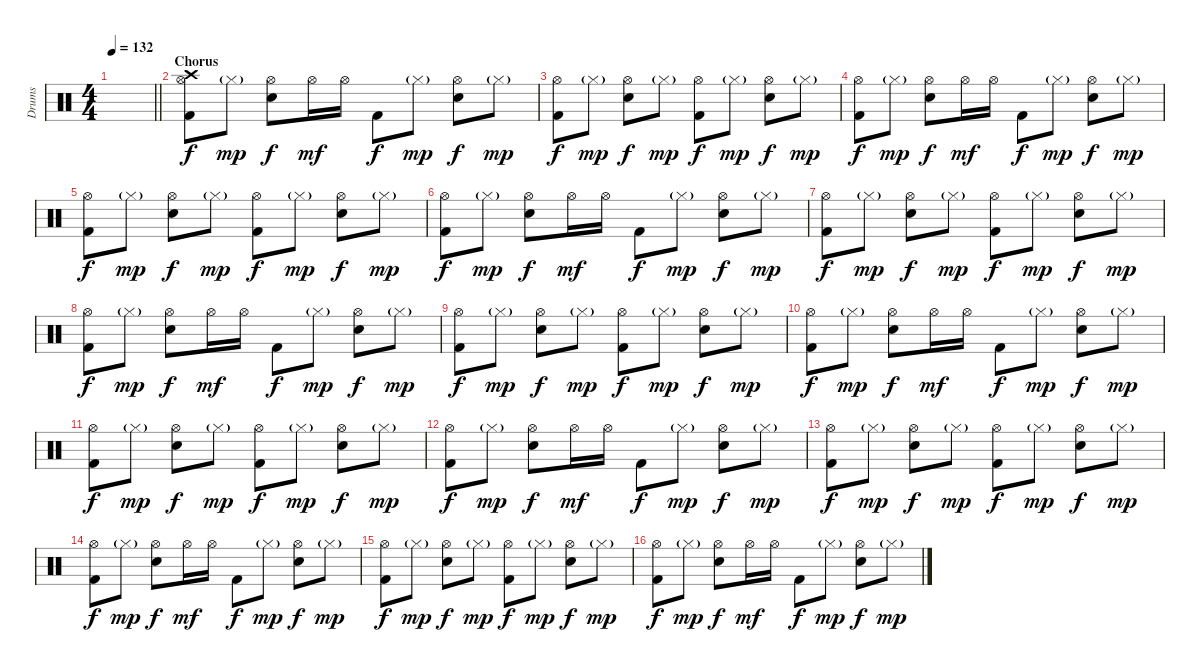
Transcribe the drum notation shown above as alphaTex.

\track ("Drums" "Drums") {instrument percussion}
\staff {score}
\articulation defaults
\ts (4 4)
\tempo 132
\clef neutral
\barLineRight lightlight
\ks c
|
\section ("" "Chorus ")
("Hi-Hat (open)" "Crash high (hit)" "Kick (hit) 2").8 "Hi-Hat (closed)"{g}.8{dy mp} ("Hi-Hat (open)" "Snare (hit) 2").8{dy f} "Hi-Hat (open)".16{dy mf} "Hi-Hat (open)".16 "Kick (hit) 2".8{dy f} "Hi-Hat (closed)"{g}.8{dy mp} ("Hi-Hat (open)" "Snare (hit) 2").8{dy f} "Hi-Hat (closed)"{g}.8{dy mp} |
("Hi-Hat (open)" "Kick (hit) 2").8{dy f} "Hi-Hat (closed)"{g}.8{dy mp} ("Hi-Hat (open)" "Snare (hit) 2").8{dy f} "Hi-Hat (closed)"{g}.8{dy mp} ("Hi-Hat (open)" "Kick (hit) 2").8{dy f} "Hi-Hat (closed)"{g}.8{dy mp} ("Hi-Hat (open)" "Snare (hit) 2").8{dy f} "Hi-Hat (closed)"{g}.8{dy mp} |
("Hi-Hat (open)" "Kick (hit) 2").8{dy f} "Hi-Hat (closed)"{g}.8{dy mp} ("Hi-Hat (open)" "Snare (hit) 2").8{dy f} "Hi-Hat (open)".16{dy mf} "Hi-Hat (open)".16 "Kick (hit) 2".8{dy f} "Hi-Hat (closed)"{g}.8{dy mp} ("Hi-Hat (open)" "Snare (hit) 2").8{dy f} "Hi-Hat (closed)"{g}.8{dy mp} |
("Hi-Hat (open)" "Kick (hit) 2").8{dy f} "Hi-Hat (closed)"{g}.8{dy mp} ("Hi-Hat (open)" "Snare (hit) 2").8{dy f} "Hi-Hat (closed)"{g}.8{dy mp} ("Hi-Hat (open)" "Kick (hit) 2").8{dy f} "Hi-Hat (closed)"{g}.8{dy mp} ("Hi-Hat (open)" "Snare (hit) 2").8{dy f} "Hi-Hat (closed)"{g}.8{dy mp} |
("Hi-Hat (open)" "Kick (hit) 2").8{dy f} "Hi-Hat (closed)"{g}.8{dy mp} ("Hi-Hat (open)" "Snare (hit) 2").8{dy f} "Hi-Hat (open)".16{dy mf} "Hi-Hat (open)".16 "Kick (hit) 2".8{dy f} "Hi-Hat (closed)"{g}.8{dy mp} ("Hi-Hat (open)" "Snare (hit) 2").8{dy f} "Hi-Hat (closed)"{g}.8{dy mp} |
("Hi-Hat (open)" "Kick (hit) 2").8{dy f} "Hi-Hat (closed)"{g}.8{dy mp} ("Hi-Hat (open)" "Snare (hit) 2").8{dy f} "Hi-Hat (closed)"{g}.8{dy mp} ("Hi-Hat (open)" "Kick (hit) 2").8{dy f} "Hi-Hat (closed)"{g}.8{dy mp} ("Hi-Hat (open)" "Snare (hit) 2").8{dy f} "Hi-Hat (closed)"{g}.8{dy mp} |
("Hi-Hat (open)" "Kick (hit) 2").8{dy f} "Hi-Hat (closed)"{g}.8{dy mp} ("Hi-Hat (open)" "Snare (hit) 2").8{dy f} "Hi-Hat (open)".16{dy mf} "Hi-Hat (open)".16 "Kick (hit) 2".8{dy f} "Hi-Hat (closed)"{g}.8{dy mp} ("Hi-Hat (open)" "Snare (hit) 2").8{dy f} "Hi-Hat (closed)"{g}.8{dy mp} |
("Hi-Hat (open)" "Kick (hit) 2").8{dy f} "Hi-Hat (closed)"{g}.8{dy mp} ("Hi-Hat (open)" "Snare (hit) 2").8{dy f} "Hi-Hat (closed)"{g}.8{dy mp} ("Hi-Hat (open)" "Kick (hit) 2").8{dy f} "Hi-Hat (closed)"{g}.8{dy mp} ("Hi-Hat (open)" "Snare (hit) 2").8{dy f} "Hi-Hat (closed)"{g}.8{dy mp} |
("Hi-Hat (open)" "Kick (hit) 2").8{dy f} "Hi-Hat (closed)"{g}.8{dy mp} ("Hi-Hat (open)" "Snare (hit) 2").8{dy f} "Hi-Hat (open)".16{dy mf} "Hi-Hat (open)".16 "Kick (hit) 2".8{dy f} "Hi-Hat (closed)"{g}.8{dy mp} ("Hi-Hat (open)" "Snare (hit) 2").8{dy f} "Hi-Hat (closed)"{g}.8{dy mp} |
("Hi-Hat (open)" "Kick (hit) 2").8{dy f} "Hi-Hat (closed)"{g}.8{dy mp} ("Hi-Hat (open)" "Snare (hit) 2").8{dy f} "Hi-Hat (closed)"{g}.8{dy mp} ("Hi-Hat (open)" "Kick (hit) 2").8{dy f} "Hi-Hat (closed)"{g}.8{dy mp} ("Hi-Hat (open)" "Snare (hit) 2").8{dy f} "Hi-Hat (closed)"{g}.8{dy mp} |
("Hi-Hat (open)" "Kick (hit) 2").8{dy f} "Hi-Hat (closed)"{g}.8{dy mp} ("Hi-Hat (open)" "Snare (hit) 2").8{dy f} "Hi-Hat (open)".16{dy mf} "Hi-Hat (open)".16 "Kick (hit) 2".8{dy f} "Hi-Hat (closed)"{g}.8{dy mp} ("Hi-Hat (open)" "Snare (hit) 2").8{dy f} "Hi-Hat (closed)"{g}.8{dy mp} |
("Hi-Hat (open)" "Kick (hit) 2").8{dy f} "Hi-Hat (closed)"{g}.8{dy mp} ("Hi-Hat (open)" "Snare (hit) 2").8{dy f} "Hi-Hat (closed)"{g}.8{dy mp} ("Hi-Hat (open)" "Kick (hit) 2").8{dy f} "Hi-Hat (closed)"{g}.8{dy mp} ("Hi-Hat (open)" "Snare (hit) 2").8{dy f} "Hi-Hat (closed)"{g}.8{dy mp} |
("Hi-Hat (open)" "Kick (hit) 2").8{dy f} "Hi-Hat (closed)"{g}.8{dy mp} ("Hi-Hat (open)" "Snare (hit) 2").8{dy f} "Hi-Hat (open)".16{dy mf} "Hi-Hat (open)".16 "Kick (hit) 2".8{dy f} "Hi-Hat (closed)"{g}.8{dy mp} ("Hi-Hat (open)" "Snare (hit) 2").8{dy f} "Hi-Hat (closed)"{g}.8{dy mp} |
("Hi-Hat (open)" "Kick (hit) 2").8{dy f} "Hi-Hat (closed)"{g}.8{dy mp} ("Hi-Hat (open)" "Snare (hit) 2").8{dy f} "Hi-Hat (closed)"{g}.8{dy mp} ("Hi-Hat (open)" "Kick (hit) 2").8{dy f} "Hi-Hat (closed)"{g}.8{dy mp} ("Hi-Hat (open)" "Snare (hit) 2").8{dy f} "Hi-Hat (closed)"{g}.8{dy mp} |
("Hi-Hat (open)" "Kick (hit) 2").8{dy f} "Hi-Hat (closed)"{g}.8{dy mp} ("Hi-Hat (open)" "Snare (hit) 2").8{dy f} "Hi-Hat (open)".16{dy mf} "Hi-Hat (open)".16 "Kick (hit) 2".8{dy f} "Hi-Hat (closed)"{g}.8{dy mp} ("Hi-Hat (open)" "Snare (hit) 2").8{dy f} "Hi-Hat (closed)"{g}.8{dy mp}
